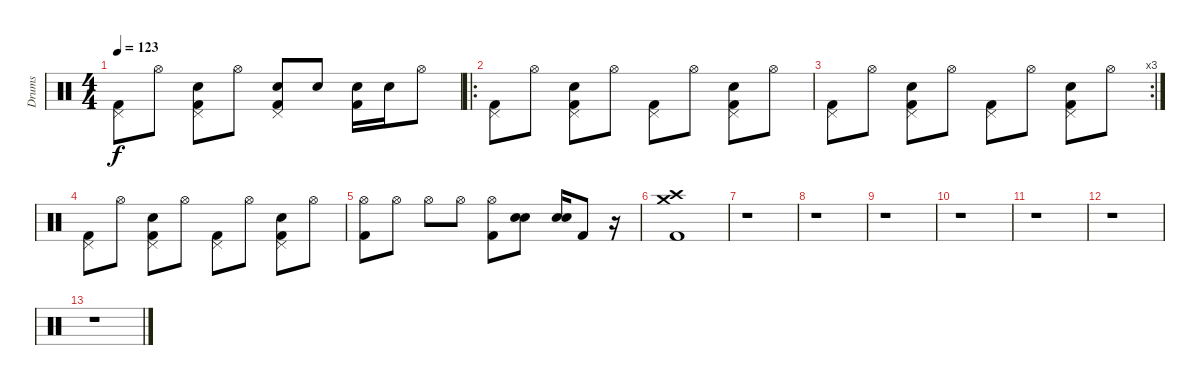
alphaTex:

\track ("Drums" "Drums") {instrument percussion}
\staff {score}
\articulation defaults
\ts (4 4)
\tempo 123
\clef neutral
\ks c
("Pedal Hi-Hat (hit)" "Kick (hit) 2").8{dy f} "Hi-Hat (open)".8 ("Pedal Hi-Hat (hit)" "Snare (hit) 2" "Kick (hit) 2").8 "Hi-Hat (open)".8 ("Pedal Hi-Hat (hit)" "Snare (hit) 2" "Kick (hit) 2").8 "Snare (hit) 2".8 ("Snare (hit) 2" "Kick (hit) 2").16 "Snare (hit) 2".16 "Hi-Hat (open)".8 |
\ro
("Pedal Hi-Hat (hit)" "Kick (hit) 2").8 "Hi-Hat (open)".8 ("Pedal Hi-Hat (hit)" "Snare (hit) 2" "Kick (hit) 2").8 "Hi-Hat (open)".8 ("Pedal Hi-Hat (hit)" "Kick (hit) 2").8 "Hi-Hat (open)".8 ("Pedal Hi-Hat (hit)" "Snare (hit) 2" "Kick (hit) 2").8 "Hi-Hat (open)".8 |
\rc 3
("Pedal Hi-Hat (hit)" "Kick (hit) 2").8 "Hi-Hat (open)".8 ("Pedal Hi-Hat (hit)" "Snare (hit) 2" "Kick (hit) 2").8 "Hi-Hat (open)".8 ("Pedal Hi-Hat (hit)" "Kick (hit) 2").8 "Hi-Hat (open)".8 ("Pedal Hi-Hat (hit)" "Snare (hit) 2" "Kick (hit) 2").8 "Hi-Hat (open)".8 |
("Pedal Hi-Hat (hit)" "Kick (hit) 2").8 "Hi-Hat (open)".8 ("Pedal Hi-Hat (hit)" "Snare (hit) 2" "Kick (hit) 2").8 "Hi-Hat (open)".8 ("Pedal Hi-Hat (hit)" "Kick (hit) 2").8 "Hi-Hat (open)".8 ("Pedal Hi-Hat (hit)" "Snare (hit) 2" "Kick (hit) 2").8 "Hi-Hat (open)".8 |
("Hi-Hat (open)" "Kick (hit) 2").8 "Hi-Hat (open)".8 "Hi-Hat (open)".8 "Hi-Hat (open)".8 ("Hi-Hat (open)" "Kick (hit) 2").8 ("Snare (hit) 2" "Snare (hit) 2").8 ("Snare (hit) 2" "Snare (hit) 2").16 "Kick (hit) 2".8 r.16 |
("Crash high (hit)" "Crash medium (hit)" "Kick (hit) 2").1 |
r.1 |
r.1 |
r.1 |
r.1 |
r.1 |
r.1 |
r.1
